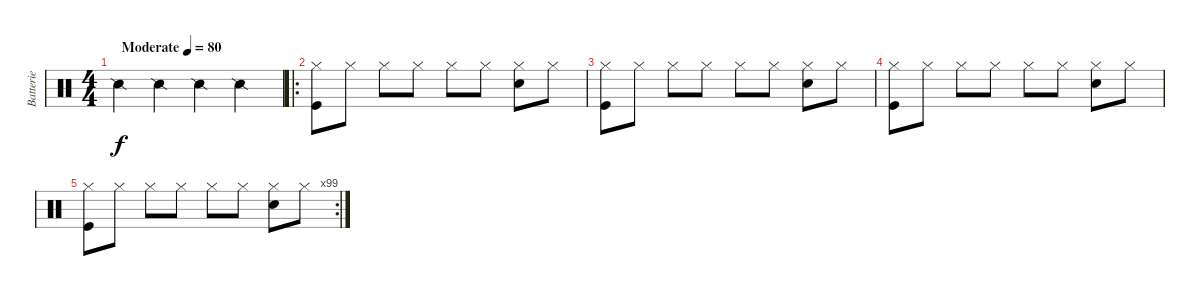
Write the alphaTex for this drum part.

\track ("Batterie" "Batterie") {instrument percussion}
\staff {score}
\articulation defaults
\ts (4 4)
\tempo (80 "Moderate")
\clef neutral
\ks c "Snare (side stick) 2".4{dy f} "Snare (side stick) 2".4 "Snare (side stick) 2".4 "Snare (side stick) 2".4
|
\ro
("Hi-Hat (closed)" "Kick (hit)").8 "Hi-Hat (closed)".8 "Hi-Hat (closed)".8 "Hi-Hat (closed)".8 "Hi-Hat (closed)".8 "Hi-Hat (closed)".8 ("Hi-Hat (closed)" "Snare (hit) 2").8 "Hi-Hat (closed)".8 |
("Hi-Hat (closed)" "Kick (hit)").8 "Hi-Hat (closed)".8 "Hi-Hat (closed)".8 "Hi-Hat (closed)".8 "Hi-Hat (closed)".8 "Hi-Hat (closed)".8 ("Hi-Hat (closed)" "Snare (hit) 2").8 "Hi-Hat (closed)".8 |
("Hi-Hat (closed)" "Kick (hit)").8 "Hi-Hat (closed)".8 "Hi-Hat (closed)".8 "Hi-Hat (closed)".8 "Hi-Hat (closed)".8 "Hi-Hat (closed)".8 ("Hi-Hat (closed)" "Snare (hit) 2").8 "Hi-Hat (closed)".8 |
\rc 99
("Hi-Hat (closed)" "Kick (hit)").8 "Hi-Hat (closed)".8 "Hi-Hat (closed)".8 "Hi-Hat (closed)".8 "Hi-Hat (closed)".8 "Hi-Hat (closed)".8 ("Hi-Hat (closed)" "Snare (hit) 2").8 "Hi-Hat (closed)".8
